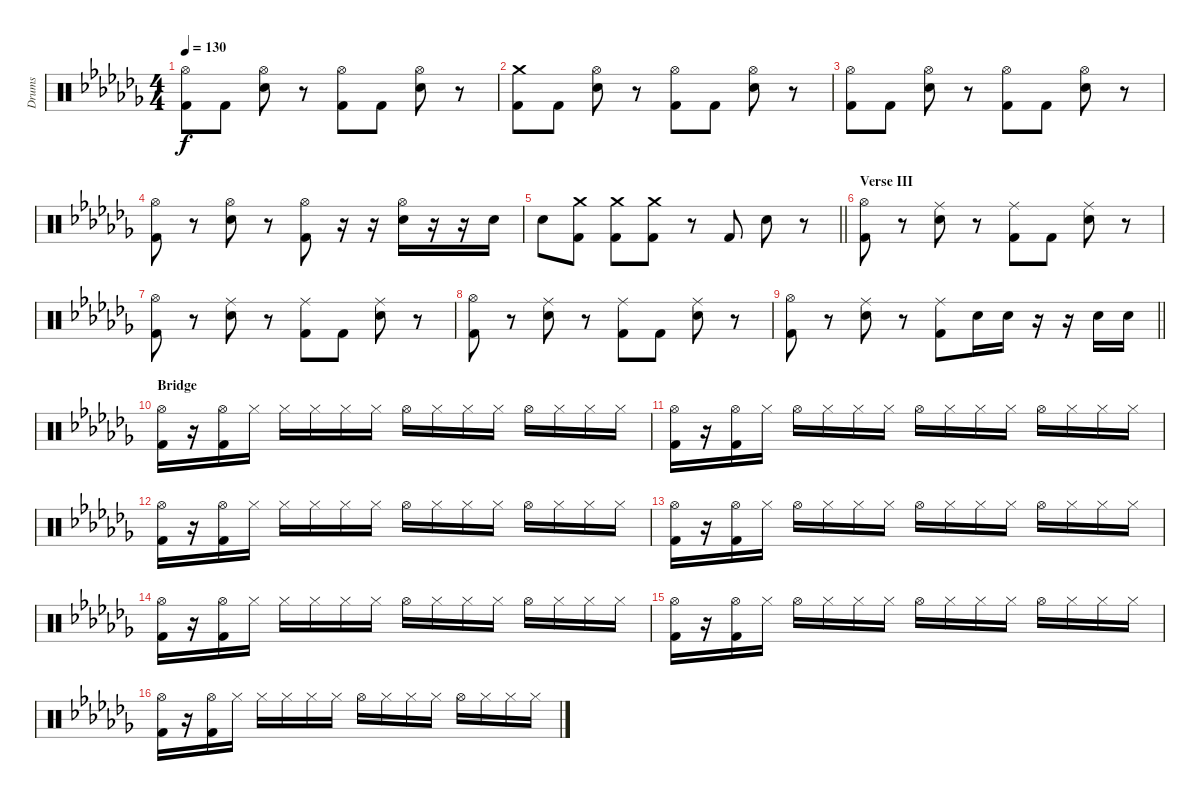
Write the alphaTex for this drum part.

\track ("Drums" "Drums") {instrument percussion}
\staff {score}
\articulation defaults
\ts (4 4)
\tempo 130
\clef neutral
\ks cb
("Hi-Hat (open)" "Kick (hit) 2").8{dy f} "Kick (hit) 2".8 ("Hi-Hat (open)" "Snare (hit) 2").8 r.8 ("Hi-Hat (open)" "Kick (hit) 2").8 "Kick (hit) 2".8 ("Hi-Hat (open)" "Snare (hit) 2").8 r.8 |
("Crash medium (hit)" "Kick (hit) 2").8 "Kick (hit) 2".8 ("Hi-Hat (open)" "Snare (hit) 2").8 r.8 ("Hi-Hat (open)" "Kick (hit) 2").8 "Kick (hit) 2".8 ("Hi-Hat (open)" "Snare (hit) 2").8 r.8 |
("Hi-Hat (open)" "Kick (hit) 2").8 "Kick (hit) 2".8 ("Hi-Hat (open)" "Snare (hit) 2").8 r.8 ("Hi-Hat (open)" "Kick (hit) 2").8 "Kick (hit) 2".8 ("Hi-Hat (open)" "Snare (hit) 2").8 r.8 |
("Hi-Hat (open)" "Kick (hit) 2").8 r.8 ("Hi-Hat (open)" "Snare (hit) 2").8 r.8 ("Hi-Hat (open)" "Kick (hit) 2").8 r.16 r.16 ("Hi-Hat (open)" "Snare (hit) 2").16 r.16 r.16 "Snare (hit) 2".16 |
\barLineRight lightlight "Snare (hit) 2".8
("Crash medium (hit)" "Kick (hit) 2").8 ("Crash medium (hit)" "Kick (hit) 2").8 ("Crash medium (hit)" "Kick (hit) 2").8 r.8 "Kick (hit) 2".8 "Snare (hit) 2".8 r.8 |
\section ("" "Verse III")
("Hi-Hat (open)" "Kick (hit) 2").8 r.8 ("Ride (middle)" "Snare (hit) 2").8 r.8 ("Ride (middle)" "Kick (hit) 2").8 "Kick (hit) 2".8 ("Ride (middle)" "Snare (hit) 2").8 r.8 |
("Hi-Hat (open)" "Kick (hit) 2").8 r.8 ("Ride (middle)" "Snare (hit) 2").8 r.8 ("Ride (middle)" "Kick (hit) 2").8 "Kick (hit) 2".8 ("Ride (middle)" "Snare (hit) 2").8 r.8 |
("Hi-Hat (open)" "Kick (hit) 2").8 r.8 ("Ride (middle)" "Snare (hit) 2").8 r.8 ("Ride (middle)" "Kick (hit) 2").8 "Kick (hit) 2".8 ("Ride (middle)" "Snare (hit) 2").8 r.8 |
\barLineRight lightlight
("Hi-Hat (open)" "Kick (hit) 2").8 r.8 ("Ride (middle)" "Snare (hit) 2").8 r.8 ("Ride (middle)" "Kick (hit) 2").8 "Snare (hit) 2".16 "Snare (hit) 2".16 r.16 r.16 "Snare (hit) 2".16 "Snare (hit) 2".16 |
\section ("" "Bridge")
("Hi-Hat (open)" "Kick (hit) 2").16 r.16 ("Hi-Hat (open)" "Kick (hit) 2").16 "Hi-Hat (closed)".16 "Hi-Hat (closed)".16 "Hi-Hat (closed)".16 "Hi-Hat (closed)".16 "Hi-Hat (closed)".16 "Hi-Hat (open)".16 "Hi-Hat (closed)".16 "Hi-Hat (closed)".16 "Hi-Hat (closed)".16 "Hi-Hat (open)".16 "Hi-Hat (closed)".16 "Hi-Hat (closed)".16 "Hi-Hat (closed)".16 |
("Hi-Hat (open)" "Kick (hit) 2").16 r.16 ("Hi-Hat (open)" "Kick (hit) 2").16 "Hi-Hat (closed)".16 "Hi-Hat (open)".16 "Hi-Hat (closed)".16 "Hi-Hat (closed)".16 "Hi-Hat (closed)".16 "Hi-Hat (open)".16 "Hi-Hat (closed)".16 "Hi-Hat (closed)".16 "Hi-Hat (closed)".16 "Hi-Hat (open)".16 "Hi-Hat (closed)".16 "Hi-Hat (closed)".16 "Hi-Hat (closed)".16 |
("Hi-Hat (open)" "Kick (hit) 2").16 r.16 ("Hi-Hat (open)" "Kick (hit) 2").16 "Hi-Hat (closed)".16 "Hi-Hat (closed)".16 "Hi-Hat (closed)".16 "Hi-Hat (closed)".16 "Hi-Hat (closed)".16 "Hi-Hat (open)".16 "Hi-Hat (closed)".16 "Hi-Hat (closed)".16 "Hi-Hat (closed)".16 "Hi-Hat (open)".16 "Hi-Hat (closed)".16 "Hi-Hat (closed)".16 "Hi-Hat (closed)".16 |
("Hi-Hat (open)" "Kick (hit) 2").16 r.16 ("Hi-Hat (open)" "Kick (hit) 2").16 "Hi-Hat (closed)".16 "Hi-Hat (open)".16 "Hi-Hat (closed)".16 "Hi-Hat (closed)".16 "Hi-Hat (closed)".16 "Hi-Hat (open)".16 "Hi-Hat (closed)".16 "Hi-Hat (closed)".16 "Hi-Hat (closed)".16 "Hi-Hat (open)".16 "Hi-Hat (closed)".16 "Hi-Hat (closed)".16 "Hi-Hat (closed)".16 |
("Hi-Hat (open)" "Kick (hit) 2").16 r.16 ("Hi-Hat (open)" "Kick (hit) 2").16 "Hi-Hat (closed)".16 "Hi-Hat (closed)".16 "Hi-Hat (closed)".16 "Hi-Hat (closed)".16 "Hi-Hat (closed)".16 "Hi-Hat (open)".16 "Hi-Hat (closed)".16 "Hi-Hat (closed)".16 "Hi-Hat (closed)".16 "Hi-Hat (open)".16 "Hi-Hat (closed)".16 "Hi-Hat (closed)".16 "Hi-Hat (closed)".16 |
("Hi-Hat (open)" "Kick (hit) 2").16 r.16 ("Hi-Hat (open)" "Kick (hit) 2").16 "Hi-Hat (closed)".16 "Hi-Hat (open)".16 "Hi-Hat (closed)".16 "Hi-Hat (closed)".16 "Hi-Hat (closed)".16 "Hi-Hat (open)".16 "Hi-Hat (closed)".16 "Hi-Hat (closed)".16 "Hi-Hat (closed)".16 "Hi-Hat (open)".16 "Hi-Hat (closed)".16 "Hi-Hat (closed)".16 "Hi-Hat (closed)".16 |
("Hi-Hat (open)" "Kick (hit) 2").16 r.16 ("Hi-Hat (open)" "Kick (hit) 2").16 "Hi-Hat (closed)".16 "Hi-Hat (closed)".16 "Hi-Hat (closed)".16 "Hi-Hat (closed)".16 "Hi-Hat (closed)".16 "Hi-Hat (open)".16 "Hi-Hat (closed)".16 "Hi-Hat (closed)".16 "Hi-Hat (closed)".16 "Hi-Hat (open)".16 "Hi-Hat (closed)".16 "Hi-Hat (closed)".16 "Hi-Hat (closed)".16
